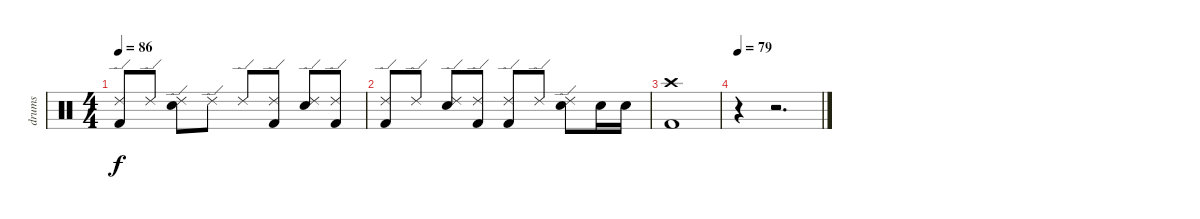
\track ("drums" "drums") {instrument percussion}
\staff {score}
\articulation defaults
\ts (4 4)
\tempo 86
\clef neutral
\ks c
("Ride (edge) 2" "Kick (hit) 2").8{dy f} "Ride (edge) 2".8 ("Ride (edge) 2" "Electric Snare (hit)").8 "Ride (edge) 2".8 "Ride (edge) 2".8 ("Ride (edge) 2" "Kick (hit) 2").8 ("Ride (edge) 2" "Electric Snare (hit)").8 ("Ride (edge) 2" "Kick (hit) 2").8 |
("Ride (edge) 2" "Kick (hit) 2").8 "Ride (edge) 2".8 ("Ride (edge) 2" "Electric Snare (hit)").8 ("Ride (edge) 2" "Kick (hit) 2").8 ("Ride (edge) 2" "Kick (hit) 2").8 "Ride (edge) 2".8 ("Ride (edge) 2" "Electric Snare (hit)").8 "Electric Snare (hit)".16 "Electric Snare (hit)".16 |
("Crash high (hit)" "Kick (hit) 2").1 |
\tempo 79
r.4 r.2{d}
